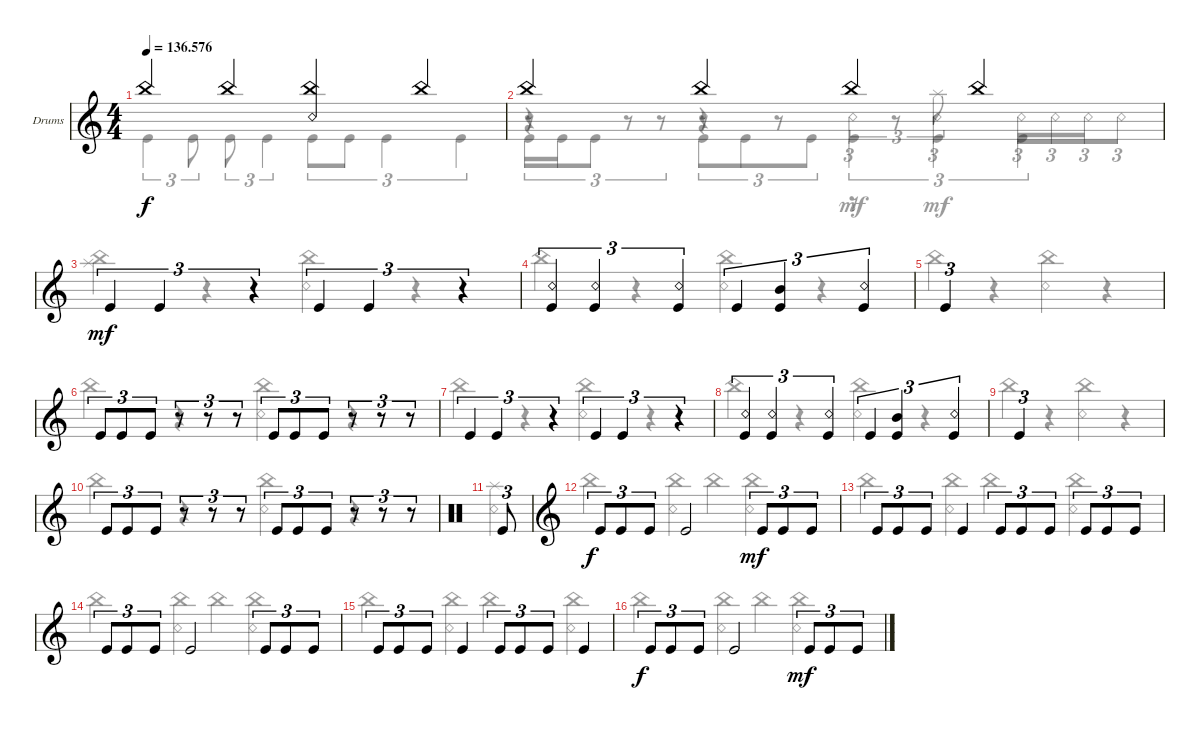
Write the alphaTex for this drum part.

\bracketExtendMode groupsimilarinstruments
\firstSystemTrackNameOrientation horizontal
\otherSystemsTrackNameOrientation horizontal
\track ("Drumkit" "Drums") {instrument percussion}
\staff {score}
\articulation defaults
\voice
\ts (4 4)
\tempo
136.576
\accidentals auto
\clef g2
\ottava regular
\simile none
\ks c "China (hit)".4{dy f} "China (hit)".4
("China (hit)" "Snare (rim shot)").4 "China (hit)".4 |
"China (hit)".4 "China (hit)".4 "China (hit)".4 "China (hit)".4 |
"Kick (hit)".4{tu (3 2) dy mf} "Kick (hit)".4{tu (3 2)} r.4{tu (3 2)} "Kick (hit)".4{tu (3 2)} "Kick (hit)".4{tu (3 2)} r.4{tu (3 2)} |
("Kick (hit)" "Snare (rim shot)").4{tu (3 2)} ("Kick (hit)" "Snare (rim shot)").4{tu (3 2)} ("Kick (hit)" "Snare (rim shot)").4{tu (3 2)} "Kick (hit)".4{tu (3 2)} ("Kick (hit)" "Mid Tom (hit)").4{tu (3 2)} ("Kick (hit)" "Snare (rim shot)").4{tu (3 2)} |
"Kick (hit)".4{tu (3 2)} |
"Kick (hit)".8{tu (3 2)} "Kick (hit)".8{tu (3 2)} "Kick (hit)".8{tu (3 2)} r.8{tu (3 2)} r.8{tu (3 2)} r.8{tu (3 2)} "Kick (hit)".8{tu (3 2)} "Kick (hit)".8{tu (3 2)} "Kick (hit)".8{tu (3 2)} r.8{tu (3 2)} r.8{tu (3 2)} r.8{tu (3 2)} |
"Kick (hit)".4{tu (3 2)} "Kick (hit)".4{tu (3 2)} r.4{tu (3 2)} "Kick (hit)".4{tu (3 2)} "Kick (hit)".4{tu (3 2)} r.4{tu (3 2)} |
("Kick (hit)" "Snare (rim shot)").4{tu (3 2)} ("Kick (hit)" "Snare (rim shot)").4{tu (3 2)} ("Kick (hit)" "Snare (rim shot)").4{tu (3 2)} "Kick (hit)".4{tu (3 2)} ("Kick (hit)" "Mid Tom (hit)").4{tu (3 2)} ("Kick (hit)" "Snare (rim shot)").4{tu (3 2)} |
"Kick (hit)".4{tu (3 2)} |
"Kick (hit)".8{tu (3 2)} "Kick (hit)".8{tu (3 2)} "Kick (hit)".8{tu (3 2)} r.8{tu (3 2)} r.8{tu (3 2)} r.8{tu (3 2)} "Kick (hit)".8{tu (3 2)} "Kick (hit)".8{tu (3 2)} "Kick (hit)".8{tu (3 2)} r.8{tu (3 2)} r.8{tu (3 2)} r.8{tu (3 2)} |
\clef neutral "Kick (hit)".8{tu (3 2)}
|
\clef g2 "Kick (hit)".8{tu (3 2) dy f} "Kick (hit)".8{tu (3 2)} "Kick (hit)".8{tu (3 2)} "Kick (hit)".2 "Kick (hit)".8{tu (3 2) dy mf} "Kick (hit)".8{tu (3 2)} "Kick (hit)".8{tu (3 2)}
|
"Kick (hit)".8{tu (3 2)} "Kick (hit)".8{tu (3 2)} "Kick (hit)".8{tu (3 2)} "Kick (hit)".4 "Kick (hit)".8{tu (3 2)} "Kick (hit)".8{tu (3 2)} "Kick (hit)".8{tu (3 2)} "Kick (hit)".8{tu (3 2)} "Kick (hit)".8{tu (3 2)} "Kick (hit)".8{tu (3 2)} |
"Kick (hit)".8{tu (3 2)} "Kick (hit)".8{tu (3 2)} "Kick (hit)".8{tu (3 2)} "Kick (hit)".2 "Kick (hit)".8{tu (3 2)} "Kick (hit)".8{tu (3 2)} "Kick (hit)".8{tu (3 2)} |
"Kick (hit)".8{tu (3 2)} "Kick (hit)".8{tu (3 2)} "Kick (hit)".8{tu (3 2)} "Kick (hit)".4 "Kick (hit)".8{tu (3 2)} "Kick (hit)".8{tu (3 2)} "Kick (hit)".8{tu (3 2)} "Kick (hit)".4 |
"Kick (hit)".8{tu (3 2) dy f} "Kick (hit)".8{tu (3 2)} "Kick (hit)".8{tu (3 2)} "Kick (hit)".2 "Kick (hit)".8{tu (3 2) dy mf} "Kick (hit)".8{tu (3 2)} "Kick (hit)".8{tu (3 2)}
\voice
\clef g2
\ottava regular
\simile none
\ks c
|
r.4 r.4 "Snare (rim shot)".4{tu (3 2)} "Snare (rim shot)".4{tu (3 2)} "Snare (rim shot)".16{tu (3 2)} "Snare (rim shot)".16{tu (3 2)} "Snare (rim shot)".16{tu (3 2)} "Snare (rim shot)".8{tu (3 2)} |
("Splash (hit)" "China (hit)").4{dy mf} r.4 ("Snare (rim shot)" "China (hit)").4 r.4 |
"China (hit)".4 r.4 ("Snare (rim shot)" "China (hit)").4 r.4 |
"China (hit)".4 r.4 ("Snare (rim shot)" "China (hit)").4 r.4 |
"China (hit)".4 r.4 ("Snare (rim shot)" "China (hit)").4 r.4 |
"China (hit)".4 r.4 ("Snare (rim shot)" "China (hit)").4 r.4 |
"China (hit)".4 r.4 ("Snare (rim shot)" "China (hit)").4 r.4 |
"China (hit)".4 r.4 ("Snare (rim shot)" "China (hit)").4 r.4 |
"China (hit)".4 r.4 ("Snare (rim shot)" "China (hit)").4 r.4 |
\clef neutral
("Snare (rim shot)" "Splash (hit)").4 |
\clef g2
|
|
|
|
\voice
\clef g2
\ottava regular
\simile none
\ks c
|
r.8 r.8 r.8 r.8 r.8{tu (3 2)} r.8{tu (3 2)} "Splash (hit)".8{tu (3 2)} |
|
|
|
|
|
|
|
|
\clef neutral
|
\clef g2 "China (hit)".4
("China (hit)" "Snare (rim shot)").4 "China (hit)".4 ("China (hit)" "Snare (rim shot)").4 |
"China (hit)".4 ("China (hit)" "Snare (rim shot)").4 "China (hit)".4 ("China (hit)" "Snare (rim shot)").4 |
"China (hit)".4 ("China (hit)" "Snare (rim shot)").4 "China (hit)".4 ("China (hit)" "Snare (rim shot)").4 |
"China (hit)".4 ("China (hit)" "Snare (rim shot)").4 "China (hit)".4 ("China (hit)" "Snare (rim shot)").4 |
"China (hit)".4 ("China (hit)" "Snare (rim shot)").4 "China (hit)".4 ("China (hit)" "Snare (rim shot)").4
\voice
\clef g2
\ottava regular
\simile none
\ks c "Kick (hit)".4{tu (3 2) dy f} "Kick (hit)".8{tu (3 2)} "Kick (hit)".8{tu (3 2)} "Kick (hit)".4{tu (3 2)} "Kick (hit)".8{tu (3 2)} "Kick (hit)".8{tu (3 2)} "Kick (hit)".4{tu (3 2)} "Kick (hit)".4{tu (3 2)}
|
"Kick (hit)".16{tu (3 2)} "Kick (hit)".16{tu (3 2)} "Kick (hit)".8{tu (3 2)} r.8{tu (3 2)} "Kick (hit)".8{tu (3 2)} "Kick (hit)".8{tu (3 2)} "Kick (hit)".8{tu (3 2)} "Kick (hit)".4{tu (3 2)} "Kick (hit)".4{tu (3 2)} "Kick (hit)".4{tu (3 2)} |
|
|
|
|
|
|
|
|
\clef neutral
|
\clef g2
|
|
|
|
